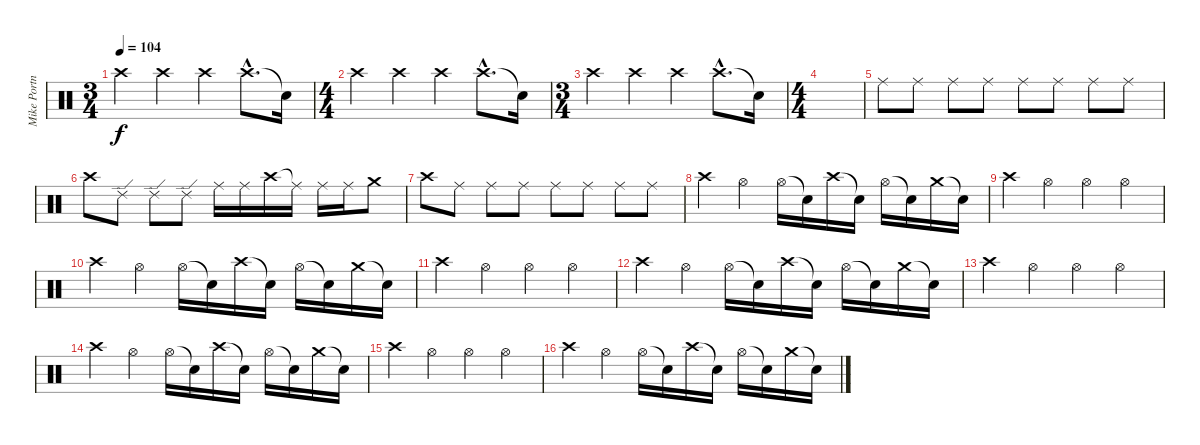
\track ("Mike Portnoy" "Mike Portn") {instrument percussion}
\staff {score}
\articulation defaults
\ts (3 4)
\tempo 104
\clef neutral
\ks c "Crash high (hit)".4{dy f} "Crash high (hit)".4 "Crash high (hit)".4 "Crash high (hit)"{hac}.8{d} "Snare (hit)"{t}.16
|
\ts (4 4)
"Crash high (hit)".4 "Crash high (hit)".4 "Crash high (hit)".4 "Crash high (hit)"{hac}.8{d} "Snare (hit)"{t}.16 |
\ts (3 4)
"Crash high (hit)".4 "Crash high (hit)".4 "Crash high (hit)".4 "Crash high (hit)"{hac}.8{d} "Snare (hit)"{t}.16 |
\ts (4 4)
|
"Ride (middle)".8 "Ride (middle)".8 "Ride (middle)".8 "Ride (middle)".8 "Ride (middle)".8 "Ride (middle)".8 "Ride (middle)".8 "Ride (middle)".8 |
"Crash high (hit)".8 "Ride (edge) 2".8 "Ride (edge) 2".8 "Ride (edge) 2".8 "Ride (middle)".16 "Ride (middle)".16 "Crash high (hit)".16 "Ride (middle)"{t}.16 "Ride (middle)".16 "Ride (middle)".16 "Crash medium (hit)".8 |
"Crash high (hit)".8 "Ride (middle)".8 "Ride (middle)".8 "Ride (middle)".8 "Ride (middle)".8 "Ride (middle)".8 "Ride (middle)".8 "Ride (middle)".8 |
"Crash high (hit)".4 "Hi-Hat (open)".4 "Hi-Hat (open)".16 "Snare (hit)"{t}.16 "Crash high (hit)".16 "Snare (hit)"{t}.16 "Hi-Hat (open)".16 "Snare (hit)"{t}.16 "Crash medium (hit)".16 "Snare (hit)"{t}.16 |
"Crash high (hit)".4 "Hi-Hat (open)".4 "Hi-Hat (open)".4 "Hi-Hat (open)".4 |
"Crash high (hit)".4 "Hi-Hat (open)".4 "Hi-Hat (open)".16 "Snare (hit)"{t}.16 "Crash high (hit)".16 "Snare (hit)"{t}.16 "Hi-Hat (open)".16 "Snare (hit)"{t}.16 "Crash medium (hit)".16 "Snare (hit)"{t}.16 |
"Crash high (hit)".4 "Hi-Hat (open)".4 "Hi-Hat (open)".4 "Hi-Hat (open)".4 |
"Crash high (hit)".4 "Hi-Hat (open)".4 "Hi-Hat (open)".16 "Snare (hit)"{t}.16 "Crash high (hit)".16 "Snare (hit)"{t}.16 "Hi-Hat (open)".16 "Snare (hit)"{t}.16 "Crash medium (hit)".16 "Snare (hit)"{t}.16 |
"Crash high (hit)".4 "Hi-Hat (open)".4 "Hi-Hat (open)".4 "Hi-Hat (open)".4 |
"Crash high (hit)".4 "Hi-Hat (open)".4 "Hi-Hat (open)".16 "Snare (hit)"{t}.16 "Crash high (hit)".16 "Snare (hit)"{t}.16 "Hi-Hat (open)".16 "Snare (hit)"{t}.16 "Crash medium (hit)".16 "Snare (hit)"{t}.16 |
"Crash high (hit)".4 "Hi-Hat (open)".4 "Hi-Hat (open)".4 "Hi-Hat (open)".4 |
"Crash high (hit)".4 "Hi-Hat (open)".4 "Hi-Hat (open)".16 "Snare (hit)"{t}.16 "Crash high (hit)".16 "Snare (hit)"{t}.16 "Hi-Hat (open)".16 "Snare (hit)"{t}.16 "Crash medium (hit)".16 "Snare (hit)"{t}.16
